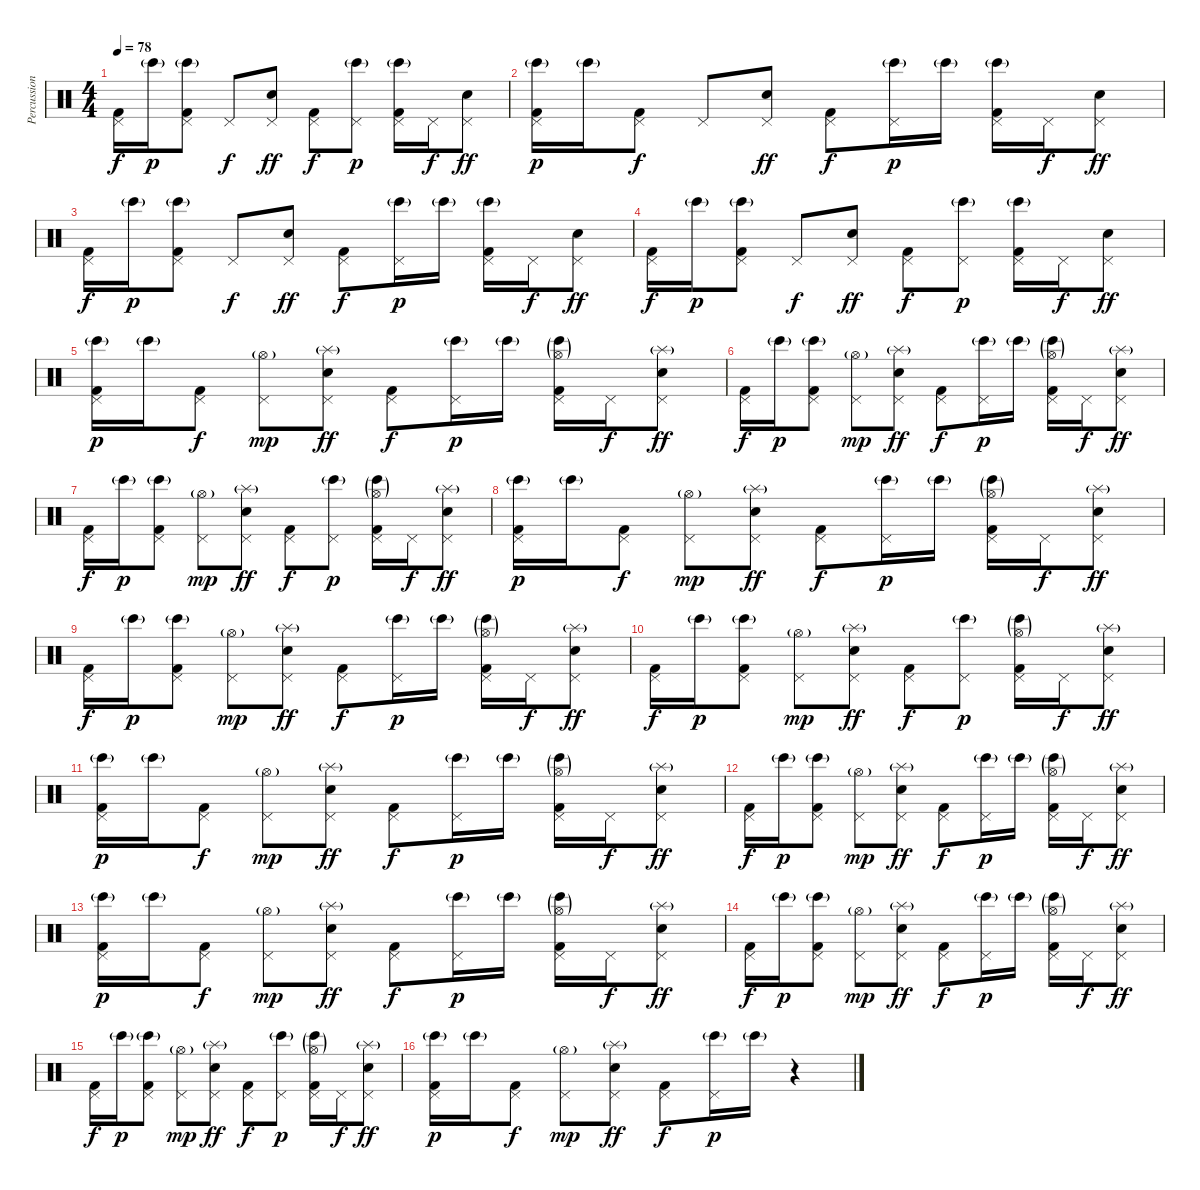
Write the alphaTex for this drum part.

\track ("Percussions" "Percussion") {instrument percussion}
\staff {score}
\articulation defaults
\ts (4 4)
\tempo 78
\clef neutral
\ks c
("Pedal Hi-Hat (hit)" "Kick (hit) 2").16{dy f} "Bongo High (hit)"{g}.16{dy p} ("Pedal Hi-Hat (hit)" "Bongo High (hit)"{g} "Kick (hit) 2").8 "Pedal Hi-Hat (hit)".8{dy f} ("Pedal Hi-Hat (hit)" "Electric Snare (hit)").8{dy ff} ("Pedal Hi-Hat (hit)" "Kick (hit) 2").8{dy f} ("Pedal Hi-Hat (hit)" "Bongo High (hit)"{g}).8{dy p} ("Pedal Hi-Hat (hit)" "Bongo High (hit)"{g} "Kick (hit) 2").16 "Pedal Hi-Hat (hit)".16{dy f} ("Pedal Hi-Hat (hit)" "Electric Snare (hit)").8{dy ff} |
("Pedal Hi-Hat (hit)" "Bongo High (hit)"{g} "Kick (hit) 2").16{dy p} "Bongo High (hit)"{g}.16 ("Pedal Hi-Hat (hit)" "Kick (hit) 2").8{dy f} "Pedal Hi-Hat (hit)".8 ("Pedal Hi-Hat (hit)" "Electric Snare (hit)").8{dy ff} ("Pedal Hi-Hat (hit)" "Kick (hit) 2").8{dy f} ("Pedal Hi-Hat (hit)" "Bongo High (hit)"{g}).16{dy p} "Bongo High (hit)"{g}.16 ("Pedal Hi-Hat (hit)" "Bongo High (hit)"{g} "Kick (hit) 2").16 "Pedal Hi-Hat (hit)".16{dy f} ("Pedal Hi-Hat (hit)" "Electric Snare (hit)").8{dy ff} |
("Pedal Hi-Hat (hit)" "Kick (hit) 2").16{dy f} "Bongo High (hit)"{g}.16{dy p} ("Pedal Hi-Hat (hit)" "Bongo High (hit)"{g} "Kick (hit) 2").8 "Pedal Hi-Hat (hit)".8{dy f} ("Pedal Hi-Hat (hit)" "Electric Snare (hit)").8{dy ff} ("Pedal Hi-Hat (hit)" "Kick (hit) 2").8{dy f} ("Pedal Hi-Hat (hit)" "Bongo High (hit)"{g}).16{dy p} "Bongo High (hit)"{g}.16 ("Pedal Hi-Hat (hit)" "Bongo High (hit)"{g} "Kick (hit) 2").16 "Pedal Hi-Hat (hit)".16{dy f} ("Pedal Hi-Hat (hit)" "Electric Snare (hit)").8{dy ff} |
("Pedal Hi-Hat (hit)" "Kick (hit) 2").16{dy f} "Bongo High (hit)"{g}.16{dy p} ("Pedal Hi-Hat (hit)" "Bongo High (hit)"{g} "Kick (hit) 2").8 "Pedal Hi-Hat (hit)".8{dy f} ("Pedal Hi-Hat (hit)" "Electric Snare (hit)").8{dy ff} ("Pedal Hi-Hat (hit)" "Kick (hit) 2").8{dy f} ("Pedal Hi-Hat (hit)" "Bongo High (hit)"{g}).8{dy p} ("Pedal Hi-Hat (hit)" "Bongo High (hit)"{g} "Kick (hit) 2").16 "Pedal Hi-Hat (hit)".16{dy f} ("Pedal Hi-Hat (hit)" "Electric Snare (hit)").8{dy ff} |
("Pedal Hi-Hat (hit)" "Bongo High (hit)"{g} "Kick (hit) 2").16{dy p} "Bongo High (hit)"{g}.16 ("Pedal Hi-Hat (hit)" "Kick (hit) 2").8{dy f} ("Pedal Hi-Hat (hit)" "Hi-Hat (open)"{g}).8{dy mp} ("Pedal Hi-Hat (hit)" "Splash (hit)"{g} "Electric Snare (hit)").8{dy ff} ("Pedal Hi-Hat (hit)" "Kick (hit) 2").8{dy f} ("Pedal Hi-Hat (hit)" "Bongo High (hit)"{g}).16{dy p} "Bongo High (hit)"{g}.16 ("Pedal Hi-Hat (hit)" "Hi-Hat (open)"{g} "Bongo High (hit)"{g} "Kick (hit) 2").16 "Pedal Hi-Hat (hit)".16{dy f} ("Pedal Hi-Hat (hit)" "Splash (hit)"{g} "Electric Snare (hit)").8{dy ff} |
("Pedal Hi-Hat (hit)" "Kick (hit) 2").16{dy f} "Bongo High (hit)"{g}.16{dy p} ("Pedal Hi-Hat (hit)" "Bongo High (hit)"{g} "Kick (hit) 2").8 ("Pedal Hi-Hat (hit)" "Hi-Hat (open)"{g}).8{dy mp} ("Pedal Hi-Hat (hit)" "Splash (hit)"{g} "Electric Snare (hit)").8{dy ff} ("Pedal Hi-Hat (hit)" "Kick (hit) 2").8{dy f} ("Pedal Hi-Hat (hit)" "Bongo High (hit)"{g}).16{dy p} "Bongo High (hit)"{g}.16 ("Pedal Hi-Hat (hit)" "Hi-Hat (open)"{g} "Bongo High (hit)"{g} "Kick (hit) 2").16 "Pedal Hi-Hat (hit)".16{dy f} ("Pedal Hi-Hat (hit)" "Splash (hit)"{g} "Electric Snare (hit)").8{dy ff} |
("Pedal Hi-Hat (hit)" "Kick (hit) 2").16{dy f} "Bongo High (hit)"{g}.16{dy p} ("Pedal Hi-Hat (hit)" "Bongo High (hit)"{g} "Kick (hit) 2").8 ("Pedal Hi-Hat (hit)" "Hi-Hat (open)"{g}).8{dy mp} ("Pedal Hi-Hat (hit)" "Splash (hit)"{g} "Electric Snare (hit)").8{dy ff} ("Pedal Hi-Hat (hit)" "Kick (hit) 2").8{dy f} ("Pedal Hi-Hat (hit)" "Bongo High (hit)"{g}).8{dy p} ("Pedal Hi-Hat (hit)" "Hi-Hat (open)"{g} "Bongo High (hit)"{g} "Kick (hit) 2").16 "Pedal Hi-Hat (hit)".16{dy f} ("Pedal Hi-Hat (hit)" "Splash (hit)"{g} "Electric Snare (hit)").8{dy ff} |
("Pedal Hi-Hat (hit)" "Bongo High (hit)"{g} "Kick (hit) 2").16{dy p} "Bongo High (hit)"{g}.16 ("Pedal Hi-Hat (hit)" "Kick (hit) 2").8{dy f} ("Pedal Hi-Hat (hit)" "Hi-Hat (open)"{g}).8{dy mp} ("Pedal Hi-Hat (hit)" "Splash (hit)"{g} "Electric Snare (hit)").8{dy ff} ("Pedal Hi-Hat (hit)" "Kick (hit) 2").8{dy f} ("Pedal Hi-Hat (hit)" "Bongo High (hit)"{g}).16{dy p} "Bongo High (hit)"{g}.16 ("Pedal Hi-Hat (hit)" "Hi-Hat (open)"{g} "Bongo High (hit)"{g} "Kick (hit) 2").16 "Pedal Hi-Hat (hit)".16{dy f} ("Pedal Hi-Hat (hit)" "Splash (hit)"{g} "Electric Snare (hit)").8{dy ff} |
("Pedal Hi-Hat (hit)" "Kick (hit) 2").16{dy f} "Bongo High (hit)"{g}.16{dy p} ("Pedal Hi-Hat (hit)" "Bongo High (hit)"{g} "Kick (hit) 2").8 ("Pedal Hi-Hat (hit)" "Hi-Hat (open)"{g}).8{dy mp} ("Pedal Hi-Hat (hit)" "Splash (hit)"{g} "Electric Snare (hit)").8{dy ff} ("Pedal Hi-Hat (hit)" "Kick (hit) 2").8{dy f} ("Pedal Hi-Hat (hit)" "Bongo High (hit)"{g}).16{dy p} "Bongo High (hit)"{g}.16 ("Pedal Hi-Hat (hit)" "Hi-Hat (open)"{g} "Bongo High (hit)"{g} "Kick (hit) 2").16 "Pedal Hi-Hat (hit)".16{dy f} ("Pedal Hi-Hat (hit)" "Splash (hit)"{g} "Electric Snare (hit)").8{dy ff} |
("Pedal Hi-Hat (hit)" "Kick (hit) 2").16{dy f} "Bongo High (hit)"{g}.16{dy p} ("Pedal Hi-Hat (hit)" "Bongo High (hit)"{g} "Kick (hit) 2").8 ("Pedal Hi-Hat (hit)" "Hi-Hat (open)"{g}).8{dy mp} ("Pedal Hi-Hat (hit)" "Splash (hit)"{g} "Electric Snare (hit)").8{dy ff} ("Pedal Hi-Hat (hit)" "Kick (hit) 2").8{dy f} ("Pedal Hi-Hat (hit)" "Bongo High (hit)"{g}).8{dy p} ("Pedal Hi-Hat (hit)" "Hi-Hat (open)"{g} "Bongo High (hit)"{g} "Kick (hit) 2").16 "Pedal Hi-Hat (hit)".16{dy f} ("Pedal Hi-Hat (hit)" "Splash (hit)"{g} "Electric Snare (hit)").8{dy ff} |
("Pedal Hi-Hat (hit)" "Bongo High (hit)"{g} "Kick (hit) 2").16{dy p} "Bongo High (hit)"{g}.16 ("Pedal Hi-Hat (hit)" "Kick (hit) 2").8{dy f} ("Pedal Hi-Hat (hit)" "Hi-Hat (open)"{g}).8{dy mp} ("Pedal Hi-Hat (hit)" "Splash (hit)"{g} "Electric Snare (hit)").8{dy ff} ("Pedal Hi-Hat (hit)" "Kick (hit) 2").8{dy f} ("Pedal Hi-Hat (hit)" "Bongo High (hit)"{g}).16{dy p} "Bongo High (hit)"{g}.16 ("Pedal Hi-Hat (hit)" "Hi-Hat (open)"{g} "Bongo High (hit)"{g} "Kick (hit) 2").16 "Pedal Hi-Hat (hit)".16{dy f} ("Pedal Hi-Hat (hit)" "Splash (hit)"{g} "Electric Snare (hit)").8{dy ff} |
("Pedal Hi-Hat (hit)" "Kick (hit) 2").16{dy f} "Bongo High (hit)"{g}.16{dy p} ("Pedal Hi-Hat (hit)" "Bongo High (hit)"{g} "Kick (hit) 2").8 ("Pedal Hi-Hat (hit)" "Hi-Hat (open)"{g}).8{dy mp} ("Pedal Hi-Hat (hit)" "Splash (hit)"{g} "Electric Snare (hit)").8{dy ff} ("Pedal Hi-Hat (hit)" "Kick (hit) 2").8{dy f} ("Pedal Hi-Hat (hit)" "Bongo High (hit)"{g}).16{dy p} "Bongo High (hit)"{g}.16 ("Pedal Hi-Hat (hit)" "Hi-Hat (open)"{g} "Bongo High (hit)"{g} "Kick (hit) 2").16 "Pedal Hi-Hat (hit)".16{dy f} ("Pedal Hi-Hat (hit)" "Splash (hit)"{g} "Electric Snare (hit)").8{dy ff} |
("Pedal Hi-Hat (hit)" "Bongo High (hit)"{g} "Kick (hit) 2").16{dy p} "Bongo High (hit)"{g}.16 ("Pedal Hi-Hat (hit)" "Kick (hit) 2").8{dy f} ("Pedal Hi-Hat (hit)" "Hi-Hat (open)"{g}).8{dy mp} ("Pedal Hi-Hat (hit)" "Splash (hit)"{g} "Electric Snare (hit)").8{dy ff} ("Pedal Hi-Hat (hit)" "Kick (hit) 2").8{dy f} ("Pedal Hi-Hat (hit)" "Bongo High (hit)"{g}).16{dy p} "Bongo High (hit)"{g}.16 ("Pedal Hi-Hat (hit)" "Hi-Hat (open)"{g} "Bongo High (hit)"{g} "Kick (hit) 2").16 "Pedal Hi-Hat (hit)".16{dy f} ("Pedal Hi-Hat (hit)" "Splash (hit)"{g} "Electric Snare (hit)").8{dy ff} |
("Pedal Hi-Hat (hit)" "Kick (hit) 2").16{dy f} "Bongo High (hit)"{g}.16{dy p} ("Pedal Hi-Hat (hit)" "Bongo High (hit)"{g} "Kick (hit) 2").8 ("Pedal Hi-Hat (hit)" "Hi-Hat (open)"{g}).8{dy mp} ("Pedal Hi-Hat (hit)" "Splash (hit)"{g} "Electric Snare (hit)").8{dy ff} ("Pedal Hi-Hat (hit)" "Kick (hit) 2").8{dy f} ("Pedal Hi-Hat (hit)" "Bongo High (hit)"{g}).16{dy p} "Bongo High (hit)"{g}.16 ("Pedal Hi-Hat (hit)" "Hi-Hat (open)"{g} "Bongo High (hit)"{g} "Kick (hit) 2").16 "Pedal Hi-Hat (hit)".16{dy f} ("Pedal Hi-Hat (hit)" "Splash (hit)"{g} "Electric Snare (hit)").8{dy ff} |
("Pedal Hi-Hat (hit)" "Kick (hit) 2").16{dy f} "Bongo High (hit)"{g}.16{dy p} ("Pedal Hi-Hat (hit)" "Bongo High (hit)"{g} "Kick (hit) 2").8 ("Pedal Hi-Hat (hit)" "Hi-Hat (open)"{g}).8{dy mp} ("Pedal Hi-Hat (hit)" "Splash (hit)"{g} "Electric Snare (hit)").8{dy ff} ("Pedal Hi-Hat (hit)" "Kick (hit) 2").8{dy f} ("Pedal Hi-Hat (hit)" "Bongo High (hit)"{g}).8{dy p} ("Pedal Hi-Hat (hit)" "Hi-Hat (open)"{g} "Bongo High (hit)"{g} "Kick (hit) 2").16 "Pedal Hi-Hat (hit)".16{dy f} ("Pedal Hi-Hat (hit)" "Splash (hit)"{g} "Electric Snare (hit)").8{dy ff} |
("Pedal Hi-Hat (hit)" "Bongo High (hit)"{g} "Kick (hit) 2").16{dy p} "Bongo High (hit)"{g}.16 ("Pedal Hi-Hat (hit)" "Kick (hit) 2").8{dy f} ("Pedal Hi-Hat (hit)" "Hi-Hat (open)"{g}).8{dy mp} ("Pedal Hi-Hat (hit)" "Splash (hit)"{g} "Electric Snare (hit)").8{dy ff} ("Pedal Hi-Hat (hit)" "Kick (hit) 2").8{dy f} ("Pedal Hi-Hat (hit)" "Bongo High (hit)"{g}).16{dy p} "Bongo High (hit)"{g}.16 r.4
